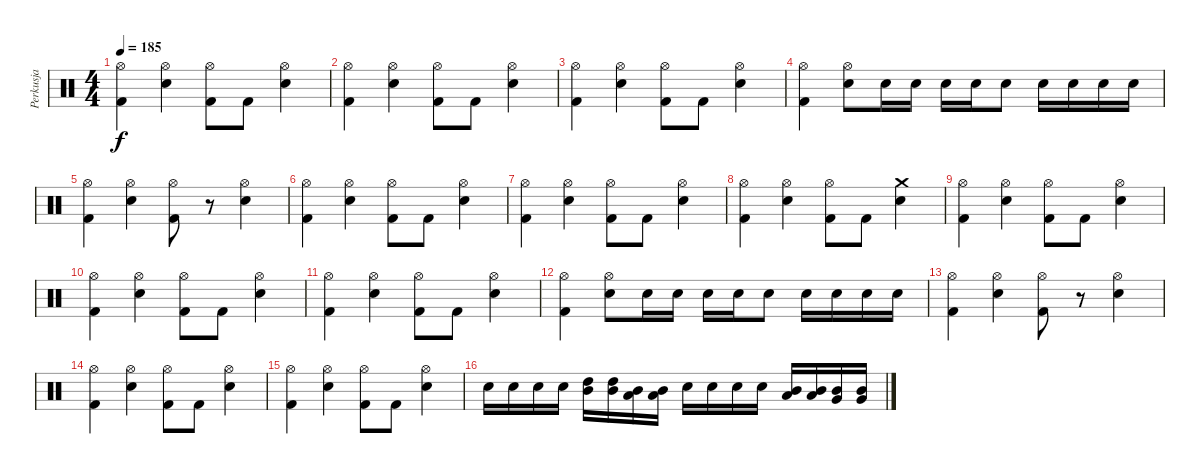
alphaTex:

\track ("Perkusja" "Perkusja") {instrument percussion}
\staff {score}
\articulation defaults
\ts (4 4)
\tempo 185
\clef neutral
\ks c
("Hi-Hat (open)" "Kick (hit) 2").4{dy f} ("Hi-Hat (open)" "Snare (hit) 2").4 ("Hi-Hat (open)" "Kick (hit) 2").8 "Kick (hit) 2".8 ("Hi-Hat (open)" "Snare (hit) 2").4 |
("Hi-Hat (open)" "Kick (hit) 2").4 ("Hi-Hat (open)" "Snare (hit) 2").4 ("Hi-Hat (open)" "Kick (hit) 2").8 "Kick (hit) 2".8 ("Hi-Hat (open)" "Snare (hit) 2").4 |
("Hi-Hat (open)" "Kick (hit) 2").4 ("Hi-Hat (open)" "Snare (hit) 2").4 ("Hi-Hat (open)" "Kick (hit) 2").8 "Kick (hit) 2".8 ("Hi-Hat (open)" "Snare (hit) 2").4 |
("Hi-Hat (open)" "Kick (hit) 2").4 ("Hi-Hat (open)" "Snare (hit) 2").8 "Snare (hit) 2".16 "Snare (hit) 2".16 "Snare (hit) 2".16 "Snare (hit) 2".16 "Snare (hit) 2".8 "Snare (hit) 2".16 "Snare (hit) 2".16 "Snare (hit) 2".16 "Snare (hit) 2".16 |
("Hi-Hat (open)" "Kick (hit) 2").4 ("Hi-Hat (open)" "Snare (hit) 2").4 ("Hi-Hat (open)" "Kick (hit) 2").8 r.8 ("Hi-Hat (open)" "Snare (hit) 2").4 |
("Hi-Hat (open)" "Kick (hit) 2").4 ("Hi-Hat (open)" "Snare (hit) 2").4 ("Hi-Hat (open)" "Kick (hit) 2").8 "Kick (hit) 2".8 ("Hi-Hat (open)" "Snare (hit) 2").4 |
("Hi-Hat (open)" "Kick (hit) 2").4 ("Hi-Hat (open)" "Snare (hit) 2").4 ("Hi-Hat (open)" "Kick (hit) 2").8 "Kick (hit) 2".8 ("Hi-Hat (open)" "Snare (hit) 2").4 |
("Hi-Hat (open)" "Kick (hit) 2").4 ("Hi-Hat (open)" "Snare (hit) 2").4 ("Hi-Hat (open)" "Kick (hit) 2").8 "Kick (hit) 2".8 ("Crash medium (hit)" "Snare (hit) 2").4 |
("Hi-Hat (open)" "Kick (hit) 2").4 ("Hi-Hat (open)" "Snare (hit) 2").4 ("Hi-Hat (open)" "Kick (hit) 2").8 "Kick (hit) 2".8 ("Hi-Hat (open)" "Snare (hit) 2").4 |
("Hi-Hat (open)" "Kick (hit) 2").4 ("Hi-Hat (open)" "Snare (hit) 2").4 ("Hi-Hat (open)" "Kick (hit) 2").8 "Kick (hit) 2".8 ("Hi-Hat (open)" "Snare (hit) 2").4 |
("Hi-Hat (open)" "Kick (hit) 2").4 ("Hi-Hat (open)" "Snare (hit) 2").4 ("Hi-Hat (open)" "Kick (hit) 2").8 "Kick (hit) 2".8 ("Hi-Hat (open)" "Snare (hit) 2").4 |
("Hi-Hat (open)" "Kick (hit) 2").4 ("Hi-Hat (open)" "Snare (hit) 2").8 "Snare (hit) 2".16 "Snare (hit) 2".16 "Snare (hit) 2".16 "Snare (hit) 2".16 "Snare (hit) 2".8 "Snare (hit) 2".16 "Snare (hit) 2".16 "Snare (hit) 2".16 "Snare (hit) 2".16 |
("Hi-Hat (open)" "Kick (hit) 2").4 ("Hi-Hat (open)" "Snare (hit) 2").4 ("Hi-Hat (open)" "Kick (hit) 2").8 r.8 ("Hi-Hat (open)" "Snare (hit) 2").4 |
("Hi-Hat (open)" "Kick (hit) 2").4 ("Hi-Hat (open)" "Snare (hit) 2").4 ("Hi-Hat (open)" "Kick (hit) 2").8 "Kick (hit) 2".8 ("Hi-Hat (open)" "Snare (hit) 2").4 |
("Hi-Hat (open)" "Kick (hit) 2").4 ("Hi-Hat (open)" "Snare (hit) 2").4 ("Hi-Hat (open)" "Kick (hit) 2").8 "Kick (hit) 2".8 ("Hi-Hat (open)" "Snare (hit) 2").4 |
"Snare (hit) 2".16 "Snare (hit) 2".16 "Snare (hit) 2".16 "Snare (hit) 2".16 ("Mid Tom (hit)" "High Tom (hit)").16 ("Mid Tom (hit)" "High Tom (hit)").16 ("Mid Tom (hit)" "Low Tom (hit)").16 ("Mid Tom (hit)" "Low Tom (hit)").16 "Snare (hit) 2".16 "Snare (hit) 2".16 "Snare (hit) 2".16 "Snare (hit) 2".16 ("Mid Tom (hit)" "Low Tom (hit)").16 ("Mid Tom (hit)" "Low Tom (hit)").16 ("Mid Tom (hit)" "Very Low Tom (hit)").16 ("Mid Tom (hit)" "Very Low Tom (hit)").16
